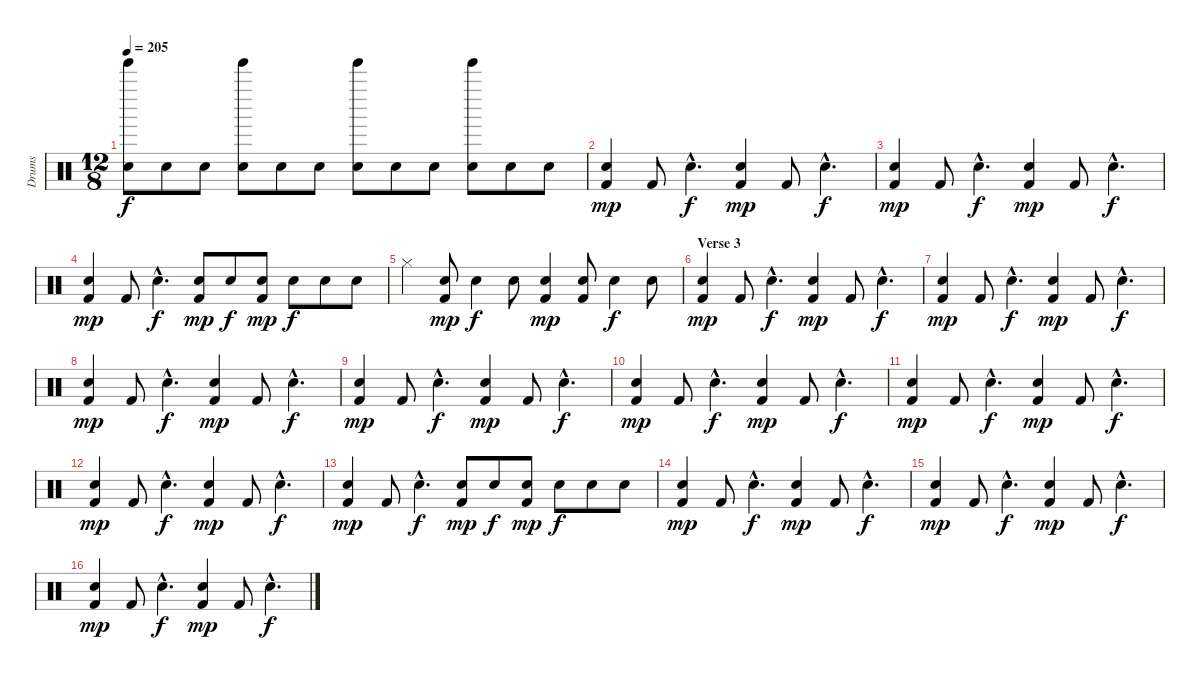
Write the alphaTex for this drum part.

\track ("Drums" "Drums") {instrument percussion}
\staff {score}
\articulation defaults
\ts (12 8)
\tempo 205
\clef neutral
\ks c
("Tinkle Bell (hit)" "Snare (hit) 2").8{dy f} "Snare (hit) 2".8 "Snare (hit) 2".8 ("Tinkle Bell (hit)" "Snare (hit) 2").8 "Snare (hit) 2".8 "Snare (hit) 2".8 ("Tinkle Bell (hit)" "Snare (hit) 2").8 "Snare (hit) 2".8 "Snare (hit) 2".8 ("Tinkle Bell (hit)" "Snare (hit) 2").8 "Snare (hit) 2".8 "Snare (hit) 2".8 |
("Snare (hit) 2" "Kick (hit) 2").4{dy mp volume 10} "Kick (hit) 2".8 "Snare (hit) 2"{hac}.4{d dy f} ("Snare (hit) 2" "Kick (hit) 2").4{dy mp} "Kick (hit) 2".8 "Snare (hit) 2"{hac}.4{d dy f} |
("Snare (hit) 2" "Kick (hit) 2").4{dy mp} "Kick (hit) 2".8 "Snare (hit) 2"{hac}.4{d dy f} ("Snare (hit) 2" "Kick (hit) 2").4{dy mp} "Kick (hit) 2".8 "Snare (hit) 2"{hac}.4{d dy f} |
("Snare (hit) 2" "Kick (hit) 2").4{dy mp volume 10} "Kick (hit) 2".8 "Snare (hit) 2"{hac}.4{d dy f} ("Snare (hit) 2" "Kick (hit) 2").8{dy mp} "Snare (hit) 2".8{dy f} ("Snare (hit) 2" "Kick (hit) 2").8{dy mp} "Snare (hit) 2".8{dy f} "Snare (hit) 2".8 "Snare (hit) 2".8 |
"Hi-Hat (closed)".4 ("Snare (hit) 2" "Kick (hit) 2").8{dy mp} "Snare (hit) 2".4{dy f} "Snare (hit) 2".8 ("Snare (hit) 2" "Kick (hit) 2").4{dy mp} ("Snare (hit) 2" "Kick (hit) 2").8 "Snare (hit) 2".4{dy f} "Snare (hit) 2".8 |
\section ("" "Verse 3")
("Snare (hit) 2" "Kick (hit) 2").4{dy mp volume 10} "Kick (hit) 2".8 "Snare (hit) 2"{hac}.4{d dy f} ("Snare (hit) 2" "Kick (hit) 2").4{dy mp} "Kick (hit) 2".8 "Snare (hit) 2"{hac}.4{d dy f} |
("Snare (hit) 2" "Kick (hit) 2").4{dy mp} "Kick (hit) 2".8 "Snare (hit) 2"{hac}.4{d dy f} ("Snare (hit) 2" "Kick (hit) 2").4{dy mp} "Kick (hit) 2".8 "Snare (hit) 2"{hac}.4{d dy f} |
("Snare (hit) 2" "Kick (hit) 2").4{dy mp volume 10} "Kick (hit) 2".8 "Snare (hit) 2"{hac}.4{d dy f} ("Snare (hit) 2" "Kick (hit) 2").4{dy mp} "Kick (hit) 2".8 "Snare (hit) 2"{hac}.4{d dy f} |
("Snare (hit) 2" "Kick (hit) 2").4{dy mp} "Kick (hit) 2".8 "Snare (hit) 2"{hac}.4{d dy f} ("Snare (hit) 2" "Kick (hit) 2").4{dy mp} "Kick (hit) 2".8 "Snare (hit) 2"{hac}.4{d dy f} |
("Snare (hit) 2" "Kick (hit) 2").4{dy mp volume 10} "Kick (hit) 2".8 "Snare (hit) 2"{hac}.4{d dy f} ("Snare (hit) 2" "Kick (hit) 2").4{dy mp} "Kick (hit) 2".8 "Snare (hit) 2"{hac}.4{d dy f} |
("Snare (hit) 2" "Kick (hit) 2").4{dy mp} "Kick (hit) 2".8 "Snare (hit) 2"{hac}.4{d dy f} ("Snare (hit) 2" "Kick (hit) 2").4{dy mp} "Kick (hit) 2".8 "Snare (hit) 2"{hac}.4{d dy f} |
("Snare (hit) 2" "Kick (hit) 2").4{dy mp volume 10} "Kick (hit) 2".8 "Snare (hit) 2"{hac}.4{d dy f} ("Snare (hit) 2" "Kick (hit) 2").4{dy mp} "Kick (hit) 2".8 "Snare (hit) 2"{hac}.4{d dy f} |
("Snare (hit) 2" "Kick (hit) 2").4{dy mp} "Kick (hit) 2".8 "Snare (hit) 2"{hac}.4{d dy f} ("Snare (hit) 2" "Kick (hit) 2").8{dy mp} "Snare (hit) 2".8{dy f} ("Snare (hit) 2" "Kick (hit) 2").8{dy mp} "Snare (hit) 2".8{dy f} "Snare (hit) 2".8 "Snare (hit) 2".8 |
("Snare (hit) 2" "Kick (hit) 2").4{dy mp volume 10} "Kick (hit) 2".8 "Snare (hit) 2"{hac}.4{d dy f} ("Snare (hit) 2" "Kick (hit) 2").4{dy mp} "Kick (hit) 2".8 "Snare (hit) 2"{hac}.4{d dy f} |
("Snare (hit) 2" "Kick (hit) 2").4{dy mp} "Kick (hit) 2".8 "Snare (hit) 2"{hac}.4{d dy f} ("Snare (hit) 2" "Kick (hit) 2").4{dy mp} "Kick (hit) 2".8 "Snare (hit) 2"{hac}.4{d dy f} |
("Snare (hit) 2" "Kick (hit) 2").4{dy mp volume 10} "Kick (hit) 2".8 "Snare (hit) 2"{hac}.4{d dy f} ("Snare (hit) 2" "Kick (hit) 2").4{dy mp} "Kick (hit) 2".8 "Snare (hit) 2"{hac}.4{d dy f}
